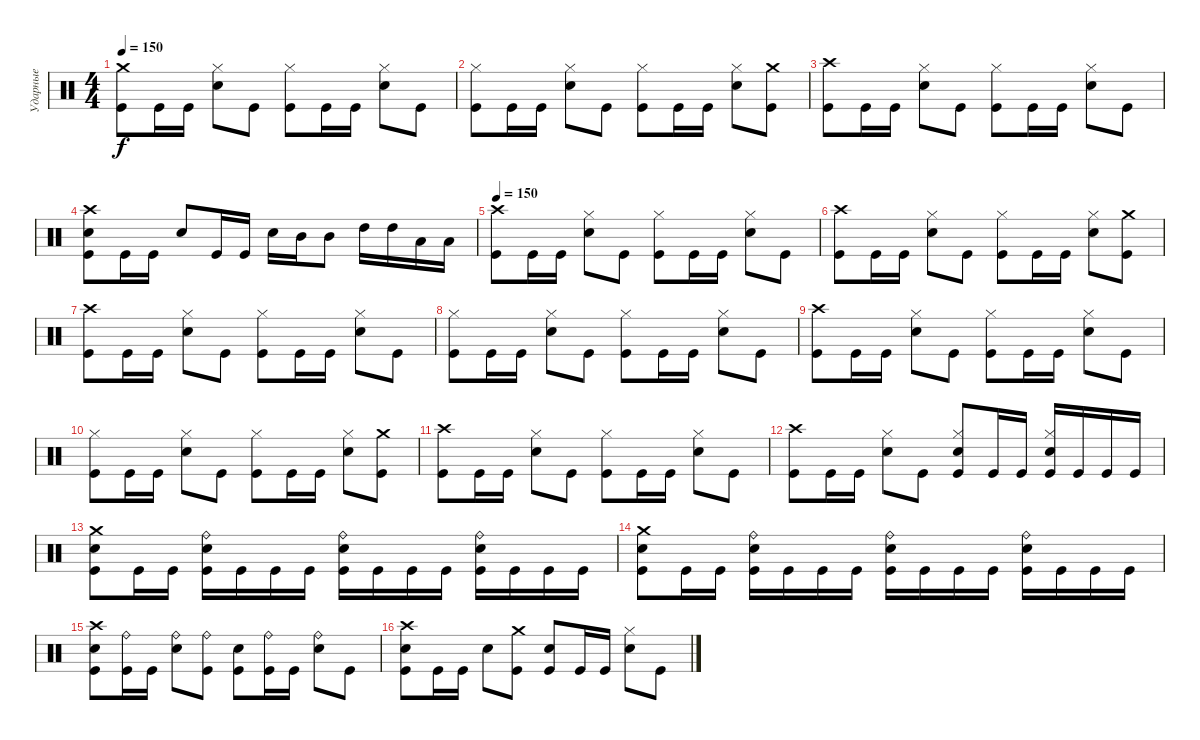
\track ("Ударные" "Ударные") {instrument percussion}
\staff {score}
\articulation defaults
\ts (4 4)
\tempo 150
\clef neutral
\ks c
("Crash medium (hit)" "Kick (hit)").8{dy f} "Kick (hit)".16 "Kick (hit)".16 ("Hi-Hat (closed)" "Electric Snare (hit)").8 "Kick (hit)".8 ("Hi-Hat (closed)" "Kick (hit)").8 "Kick (hit)".16 "Kick (hit)".16 ("Hi-Hat (closed)" "Electric Snare (hit)").8 "Kick (hit)".8 |
("Hi-Hat (closed)" "Kick (hit)").8 "Kick (hit)".16 "Kick (hit)".16 ("Hi-Hat (closed)" "Electric Snare (hit)").8 "Kick (hit)".8 ("Hi-Hat (closed)" "Kick (hit)").8 "Kick (hit)".16 "Kick (hit)".16 ("Hi-Hat (closed)" "Electric Snare (hit)").8 ("Crash medium (hit)" "Kick (hit)").8 |
("Crash high (hit)" "Kick (hit)").8 "Kick (hit)".16 "Kick (hit)".16 ("Hi-Hat (closed)" "Electric Snare (hit)").8 "Kick (hit)".8 ("Hi-Hat (closed)" "Kick (hit)").8 "Kick (hit)".16 "Kick (hit)".16 ("Hi-Hat (closed)" "Electric Snare (hit)").8 "Kick (hit)".8 |
("Crash high (hit)" "Electric Snare (hit)" "Kick (hit)").8 "Kick (hit)".16 "Kick (hit)".16 "Electric Snare (hit)".8 "Kick (hit)".16 "Kick (hit)".16 "Electric Snare (hit)".16 "Mid Tom (hit)".16 "Mid Tom (hit)".8 "High Tom (hit)".16 "High Tom (hit)".16 "Low Tom (hit)".16 "Low Tom (hit)".16 |
\tempo 150
("Crash high (hit)" "Kick (hit)").8 "Kick (hit)".16 "Kick (hit)".16 ("Hi-Hat (closed)" "Electric Snare (hit)").8 "Kick (hit)".8 ("Hi-Hat (closed)" "Kick (hit)").8 "Kick (hit)".16 "Kick (hit)".16 ("Hi-Hat (closed)" "Electric Snare (hit)").8 "Kick (hit)".8 |
("Crash high (hit)" "Kick (hit)").8 "Kick (hit)".16 "Kick (hit)".16 ("Hi-Hat (closed)" "Electric Snare (hit)").8 "Kick (hit)".8 ("Hi-Hat (closed)" "Kick (hit)").8 "Kick (hit)".16 "Kick (hit)".16 ("Hi-Hat (closed)" "Electric Snare (hit)").8 ("Crash medium (hit)" "Kick (hit)").8 |
("Crash high (hit)" "Kick (hit)").8 "Kick (hit)".16 "Kick (hit)".16 ("Hi-Hat (closed)" "Electric Snare (hit)").8 "Kick (hit)".8 ("Hi-Hat (closed)" "Kick (hit)").8 "Kick (hit)".16 "Kick (hit)".16 ("Hi-Hat (closed)" "Electric Snare (hit)").8 "Kick (hit)".8 |
("Hi-Hat (closed)" "Kick (hit)").8 "Kick (hit)".16 "Kick (hit)".16 ("Hi-Hat (closed)" "Electric Snare (hit)").8 "Kick (hit)".8 ("Hi-Hat (closed)" "Kick (hit)").8 "Kick (hit)".16 "Kick (hit)".16 ("Hi-Hat (closed)" "Electric Snare (hit)").8 "Kick (hit)".8 |
("Crash high (hit)" "Kick (hit)").8 "Kick (hit)".16 "Kick (hit)".16 ("Hi-Hat (closed)" "Electric Snare (hit)").8 "Kick (hit)".8 ("Hi-Hat (closed)" "Kick (hit)").8 "Kick (hit)".16 "Kick (hit)".16 ("Hi-Hat (closed)" "Electric Snare (hit)").8 "Kick (hit)".8 |
("Hi-Hat (closed)" "Kick (hit)").8 "Kick (hit)".16 "Kick (hit)".16 ("Hi-Hat (closed)" "Electric Snare (hit)").8 "Kick (hit)".8 ("Hi-Hat (closed)" "Kick (hit)").8 "Kick (hit)".16 "Kick (hit)".16 ("Hi-Hat (closed)" "Electric Snare (hit)").8 ("Crash medium (hit)" "Kick (hit)").8 |
("Crash high (hit)" "Kick (hit)").8 "Kick (hit)".16 "Kick (hit)".16 ("Hi-Hat (closed)" "Electric Snare (hit)").8 "Kick (hit)".8 ("Hi-Hat (closed)" "Kick (hit)").8 "Kick (hit)".16 "Kick (hit)".16 ("Hi-Hat (closed)" "Electric Snare (hit)").8 "Kick (hit)".8 |
("Crash high (hit)" "Kick (hit)").8 "Kick (hit)".16 "Kick (hit)".16 ("Hi-Hat (closed)" "Electric Snare (hit)").8 "Kick (hit)".8 ("Hi-Hat (closed)" "Electric Snare (hit)" "Kick (hit)").8 "Kick (hit)".16 "Kick (hit)".16 ("Hi-Hat (closed)" "Electric Snare (hit)" "Kick (hit)").16 "Kick (hit)".16 "Kick (hit)".16 "Kick (hit)".16 |
("Crash medium (hit)" "Electric Snare (hit)" "Kick (hit)").8 "Kick (hit)".16 "Kick (hit)".16 ("Ride (bell)" "Electric Snare (hit)" "Kick (hit)").16 "Kick (hit)".16 "Kick (hit)".16 "Kick (hit)".16 ("Ride (bell)" "Electric Snare (hit)" "Kick (hit)").16 "Kick (hit)".16 "Kick (hit)".16 "Kick (hit)".16 ("Ride (bell)" "Electric Snare (hit)" "Kick (hit)").16 "Kick (hit)".16 "Kick (hit)".16 "Kick (hit)".16 |
("Crash medium (hit)" "Electric Snare (hit)" "Kick (hit)").8 "Kick (hit)".16 "Kick (hit)".16 ("Ride (bell)" "Electric Snare (hit)" "Kick (hit)").16 "Kick (hit)".16 "Kick (hit)".16 "Kick (hit)".16 ("Ride (bell)" "Electric Snare (hit)" "Kick (hit)").16 "Kick (hit)".16 "Kick (hit)".16 "Kick (hit)".16 ("Ride (bell)" "Electric Snare (hit)" "Kick (hit)").16 "Kick (hit)".16 "Kick (hit)".16 "Kick (hit)".16 |
("Crash high (hit)" "Electric Snare (hit)" "Kick (hit)").8 ("Ride (bell)" "Kick (hit)").16 "Kick (hit)".16 ("Ride (bell)" "Electric Snare (hit)").8 ("Ride (bell)" "Kick (hit)").8 ("Electric Snare (hit)" "Kick (hit)").8 ("Ride (bell)" "Kick (hit)").16 "Kick (hit)".16 ("Ride (bell)" "Electric Snare (hit)").8 "Kick (hit)".8 |
("Crash high (hit)" "Electric Snare (hit)" "Kick (hit)").8 "Kick (hit)".16 "Kick (hit)".16 "Electric Snare (hit)".8 ("Crash medium (hit)" "Kick (hit)").8 ("Electric Snare (hit)" "Kick (hit)").8 "Kick (hit)".16 "Kick (hit)".16 ("Hi-Hat (closed)" "Electric Snare (hit)").8 "Kick (hit)".8
